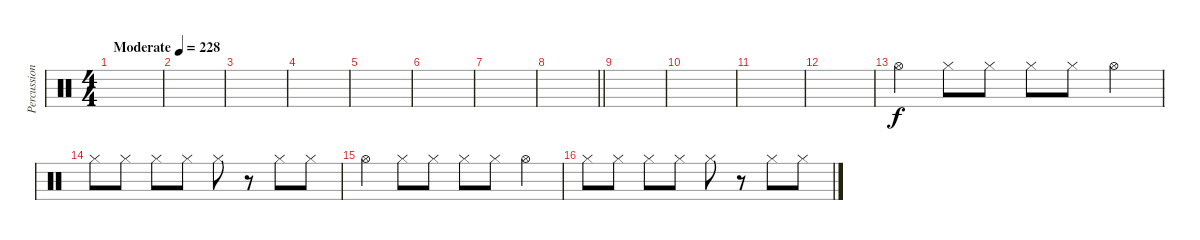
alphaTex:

\track ("Percussion" "Percussion") {instrument percussion}
\staff {score}
\articulation defaults
\ts (4 4)
\tempo (228 "Moderate")
\clef neutral
\ks c
|
|
|
|
|
|
|
\barLineRight lightlight
|
|
|
|
|
"Hi-Hat (open)".4 "Hi-Hat (closed)".8 "Hi-Hat (closed)".8 "Hi-Hat (closed)".8 "Hi-Hat (closed)".8 "Hi-Hat (open)".4 |
"Hi-Hat (closed)".8 "Hi-Hat (closed)".8 "Hi-Hat (closed)".8 "Hi-Hat (closed)".8 "Hi-Hat (closed)".8 r.8 "Hi-Hat (closed)".8 "Hi-Hat (closed)".8 |
"Hi-Hat (open)".4 "Hi-Hat (closed)".8 "Hi-Hat (closed)".8 "Hi-Hat (closed)".8 "Hi-Hat (closed)".8 "Hi-Hat (open)".4 |
"Hi-Hat (closed)".8 "Hi-Hat (closed)".8 "Hi-Hat (closed)".8 "Hi-Hat (closed)".8 "Hi-Hat (closed)".8 r.8 "Hi-Hat (closed)".8 "Hi-Hat (closed)".8
